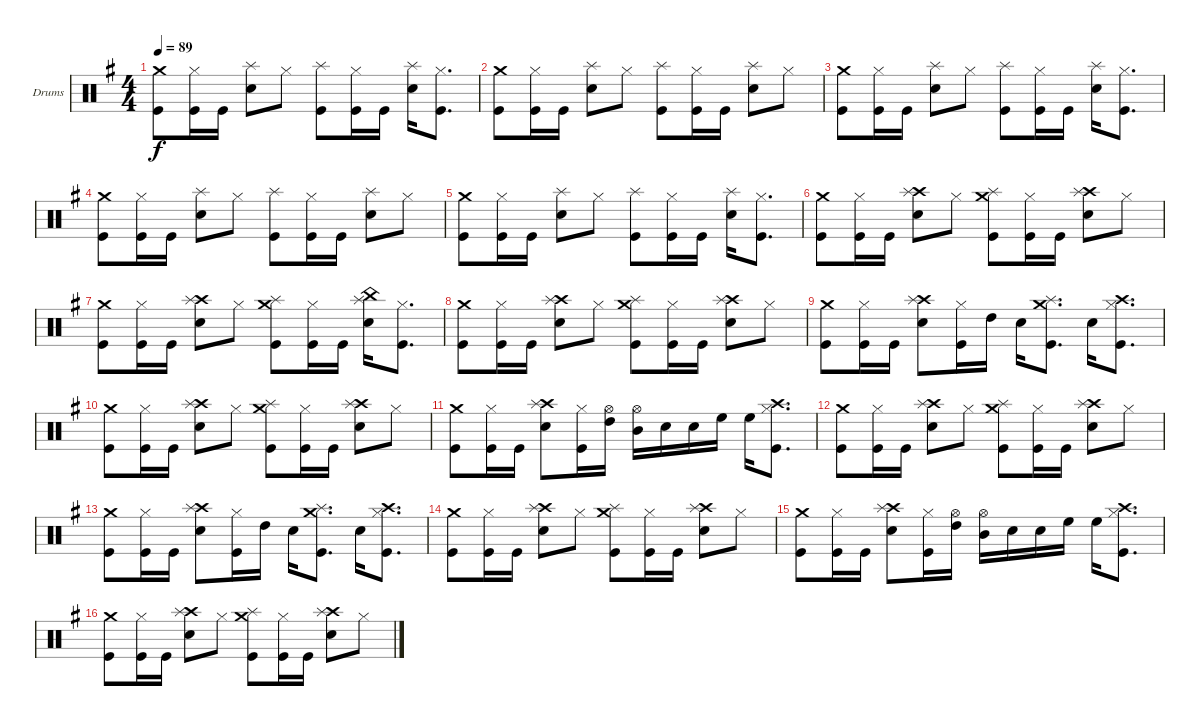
\bracketExtendMode groupsimilarinstruments
\firstSystemTrackNameOrientation horizontal
\otherSystemsTrackNameOrientation horizontal
\track ("Drumkit" "Drums") {instrument percussion}
\staff {score}
\articulation defaults
\ts (4 4)
\tempo 89
\clef neutral
\scale
0.5
\ks eminor
("Kick (hit)" "Crash medium (hit)").8{dy f} ("Kick (hit)" "Hi-Hat (closed)").16 "Kick (hit)".16 ("Snare (hit) 2" "Splash (hit)").8 "Hi-Hat (closed)".8 ("Kick (hit)" "Splash (hit)").8 ("Kick (hit)" "Hi-Hat (closed)").16 "Kick (hit)".16 ("Snare (hit) 2" "Splash (hit)").16 ("Kick (hit)" "Hi-Hat (closed)").8{d} |
\scale
0.5 ("Kick (hit)" "Crash medium (hit)").8 ("Kick (hit)" "Hi-Hat (closed)").16 "Kick (hit)".16 ("Snare (hit) 2" "Splash (hit)").8 "Hi-Hat (closed)".8 ("Kick (hit)" "Splash (hit)").8 ("Kick (hit)" "Hi-Hat (closed)").16 "Kick (hit)".16 ("Snare (hit) 2" "Splash (hit)").8 "Hi-Hat (closed)".8 |
\scale
0.5 ("Kick (hit)" "Crash medium (hit)").8 ("Kick (hit)" "Hi-Hat (closed)").16 "Kick (hit)".16 ("Snare (hit) 2" "Splash (hit)").8 "Hi-Hat (closed)".8 ("Kick (hit)" "Splash (hit)").8 ("Kick (hit)" "Hi-Hat (closed)").16 "Kick (hit)".16 ("Snare (hit) 2" "Splash (hit)").16 ("Kick (hit)" "Hi-Hat (closed)").8{d} |
\scale
0.5 ("Kick (hit)" "Crash medium (hit)").8 ("Kick (hit)" "Hi-Hat (closed)").16 "Kick (hit)".16 ("Snare (hit) 2" "Splash (hit)").8 "Hi-Hat (closed)".8 ("Kick (hit)" "Splash (hit)").8 ("Kick (hit)" "Hi-Hat (closed)").16 "Kick (hit)".16 ("Snare (hit) 2" "Splash (hit)").8 "Hi-Hat (closed)".8 |
\scale
0.442922 ("Kick (hit)" "Crash medium (hit)").8 ("Kick (hit)" "Hi-Hat (closed)").16 "Kick (hit)".16 ("Snare (hit) 2" "Splash (hit)").8 "Hi-Hat (closed)".8 ("Kick (hit)" "Splash (hit)").8 ("Kick (hit)" "Hi-Hat (closed)").16 "Kick (hit)".16 ("Snare (hit) 2" "Splash (hit)").16 ("Kick (hit)" "Hi-Hat (closed)").8{d} |
\scale
0.557078 ("Kick (hit)" "Crash medium (hit)").8 ("Kick (hit)" "Hi-Hat (closed)").16 "Kick (hit)".16 ("Snare (hit) 2" "Crash high (hit)" "Splash (hit)").8 "Hi-Hat (closed)".8 ("Kick (hit)" "Crash medium (hit)" "Splash (hit)").8 ("Kick (hit)" "Hi-Hat (closed)").16 "Kick (hit)".16 ("Snare (hit) 2" "Crash high (hit)" "Splash (hit)").8 "Hi-Hat (closed)".8 |
\scale
0.5 ("Kick (hit)" "Crash medium (hit)").8 ("Kick (hit)" "Hi-Hat (closed)").16 "Kick (hit)".16 ("Snare (hit) 2" "Crash high (hit)" "Splash (hit)").8 "Hi-Hat (closed)".8 ("Kick (hit)" "Crash medium (hit)" "Splash (hit)").8 ("Kick (hit)" "Hi-Hat (closed)").16 "Kick (hit)".16 ("Snare (hit) 2" "China (hit)" "Splash (hit)").16 ("Kick (hit)" "Hi-Hat (closed)").8{d} |
\scale
0.5 ("Kick (hit)" "Crash medium (hit)").8 ("Kick (hit)" "Hi-Hat (closed)").16 "Kick (hit)".16 ("Snare (hit) 2" "Crash high (hit)" "Splash (hit)").8 "Hi-Hat (closed)".8 ("Kick (hit)" "Crash medium (hit)" "Splash (hit)").8 ("Kick (hit)" "Hi-Hat (closed)").16 "Kick (hit)".16 ("Snare (hit) 2" "Crash high (hit)" "Splash (hit)").8 "Hi-Hat (closed)".8 |
\scale
0.5 ("Kick (hit)" "Crash medium (hit)").8 ("Kick (hit)" "Hi-Hat (closed)").16 "Kick (hit)".16 ("Snare (hit) 2" "Crash high (hit)" "Splash (hit)").8 ("Kick (hit)" "Hi-Hat (closed)").16 "High Tom (hit)".16 "Snare (hit) 2".16 ("Kick (hit)" "Crash medium (hit)" "Splash (hit)").8{d} "Snare (hit) 2".16 ("Kick (hit)" "Hi-Hat (closed)" "Crash high (hit)").8{d} |
\scale
0.5 ("Kick (hit)" "Crash medium (hit)").8 ("Kick (hit)" "Hi-Hat (closed)").16 "Kick (hit)".16 ("Snare (hit) 2" "Crash high (hit)" "Splash (hit)").8 "Hi-Hat (closed)".8 ("Kick (hit)" "Crash medium (hit)" "Splash (hit)").8 ("Kick (hit)" "Hi-Hat (closed)").16 "Kick (hit)".16 ("Snare (hit) 2" "Crash high (hit)" "Splash (hit)").8 "Hi-Hat (closed)".8 |
\scale
0.526214 ("Kick (hit)" "Crash medium (hit)").8 ("Kick (hit)" "Hi-Hat (closed)").16 "Kick (hit)".16 ("Snare (hit) 2" "Crash high (hit)" "Splash (hit)").8 ("Kick (hit)" "Hi-Hat (closed)").16 ("High Tom (hit)" "Hi-Hat (open)").16 ("Mid Tom (hit)" "Hi-Hat (open)").16 "Snare (hit) 2".16 "Snare (hit) 2".16 "High Floor Tom (hit)".16 "High Floor Tom (hit)".16 ("Kick (hit)" "Hi-Hat (closed)" "Crash high (hit)").8{d} |
\scale
0.473786 ("Kick (hit)" "Crash medium (hit)").8 ("Kick (hit)" "Hi-Hat (closed)").16 "Kick (hit)".16 ("Snare (hit) 2" "Crash high (hit)" "Splash (hit)").8 "Hi-Hat (closed)".8 ("Kick (hit)" "Crash medium (hit)" "Splash (hit)").8 ("Kick (hit)" "Hi-Hat (closed)").16 "Kick (hit)".16 ("Snare (hit) 2" "Crash high (hit)" "Splash (hit)").8 "Hi-Hat (closed)".8 |
\scale
0.5 ("Kick (hit)" "Crash medium (hit)").8 ("Kick (hit)" "Hi-Hat (closed)").16 "Kick (hit)".16 ("Snare (hit) 2" "Crash high (hit)" "Splash (hit)").8 ("Kick (hit)" "Hi-Hat (closed)").16 "High Tom (hit)".16 "Snare (hit) 2".16 ("Kick (hit)" "Crash medium (hit)" "Splash (hit)").8{d} "Snare (hit) 2".16 ("Kick (hit)" "Hi-Hat (closed)" "Crash high (hit)").8{d} |
\scale
0.5 ("Kick (hit)" "Crash medium (hit)").8 ("Kick (hit)" "Hi-Hat (closed)").16 "Kick (hit)".16 ("Snare (hit) 2" "Crash high (hit)" "Splash (hit)").8 "Hi-Hat (closed)".8 ("Kick (hit)" "Crash medium (hit)" "Splash (hit)").8 ("Kick (hit)" "Hi-Hat (closed)").16 "Kick (hit)".16 ("Snare (hit) 2" "Crash high (hit)" "Splash (hit)").8 "Hi-Hat (closed)".8 |
\scale
0.526214 ("Kick (hit)" "Crash medium (hit)").8 ("Kick (hit)" "Hi-Hat (closed)").16 "Kick (hit)".16 ("Snare (hit) 2" "Crash high (hit)" "Splash (hit)").8 ("Kick (hit)" "Hi-Hat (closed)").16 ("High Tom (hit)" "Hi-Hat (open)").16 ("Mid Tom (hit)" "Hi-Hat (open)").16 "Snare (hit) 2".16 "Snare (hit) 2".16 "High Floor Tom (hit)".16 "High Floor Tom (hit)".16 ("Kick (hit)" "Hi-Hat (closed)" "Crash high (hit)").8{d} |
\scale
0.473786 ("Kick (hit)" "Crash medium (hit)").8 ("Kick (hit)" "Hi-Hat (closed)").16 "Kick (hit)".16 ("Snare (hit) 2" "Crash high (hit)" "Splash (hit)").8 "Hi-Hat (closed)".8 ("Kick (hit)" "Crash medium (hit)" "Splash (hit)").8 ("Kick (hit)" "Hi-Hat (closed)").16 "Kick (hit)".16 ("Snare (hit) 2" "Crash high (hit)" "Splash (hit)").8 "Hi-Hat (closed)".8
